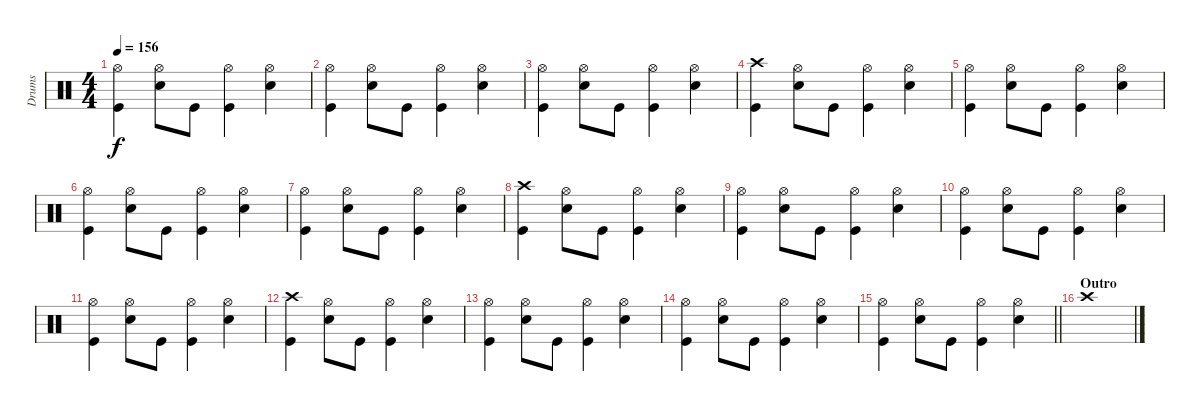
\track ("Drums" "Drums") {instrument percussion}
\staff {score}
\articulation defaults
\ts (4 4)
\tempo 156
\clef neutral
\ks c
("Hi-Hat (open)" "Kick (hit)").4{dy f} ("Hi-Hat (open)" "Snare (hit) 2").8 "Kick (hit)".8 ("Hi-Hat (open)" "Kick (hit)").4 ("Hi-Hat (open)" "Snare (hit) 2").4 |
("Hi-Hat (open)" "Kick (hit)").4 ("Hi-Hat (open)" "Snare (hit) 2").8 "Kick (hit)".8 ("Hi-Hat (open)" "Kick (hit)").4 ("Hi-Hat (open)" "Snare (hit) 2").4 |
("Hi-Hat (open)" "Kick (hit)").4 ("Hi-Hat (open)" "Snare (hit) 2").8 "Kick (hit)".8 ("Hi-Hat (open)" "Kick (hit)").4 ("Hi-Hat (open)" "Snare (hit) 2").4 |
("Crash high (hit)" "Kick (hit)").4 ("Hi-Hat (open)" "Snare (hit) 2").8 "Kick (hit)".8 ("Hi-Hat (open)" "Kick (hit)").4 ("Hi-Hat (open)" "Snare (hit) 2").4 |
("Hi-Hat (open)" "Kick (hit)").4 ("Hi-Hat (open)" "Snare (hit) 2").8 "Kick (hit)".8 ("Hi-Hat (open)" "Kick (hit)").4 ("Hi-Hat (open)" "Snare (hit) 2").4 |
("Hi-Hat (open)" "Kick (hit)").4 ("Hi-Hat (open)" "Snare (hit) 2").8 "Kick (hit)".8 ("Hi-Hat (open)" "Kick (hit)").4 ("Hi-Hat (open)" "Snare (hit) 2").4 |
("Hi-Hat (open)" "Kick (hit)").4 ("Hi-Hat (open)" "Snare (hit) 2").8 "Kick (hit)".8 ("Hi-Hat (open)" "Kick (hit)").4 ("Hi-Hat (open)" "Snare (hit) 2").4 |
("Crash high (hit)" "Kick (hit)").4 ("Hi-Hat (open)" "Snare (hit) 2").8 "Kick (hit)".8 ("Hi-Hat (open)" "Kick (hit)").4 ("Hi-Hat (open)" "Snare (hit) 2").4 |
("Hi-Hat (open)" "Kick (hit)").4 ("Hi-Hat (open)" "Snare (hit) 2").8 "Kick (hit)".8 ("Hi-Hat (open)" "Kick (hit)").4 ("Hi-Hat (open)" "Snare (hit) 2").4 |
("Hi-Hat (open)" "Kick (hit)").4 ("Hi-Hat (open)" "Snare (hit) 2").8 "Kick (hit)".8 ("Hi-Hat (open)" "Kick (hit)").4 ("Hi-Hat (open)" "Snare (hit) 2").4 |
("Hi-Hat (open)" "Kick (hit)").4 ("Hi-Hat (open)" "Snare (hit) 2").8 "Kick (hit)".8 ("Hi-Hat (open)" "Kick (hit)").4 ("Hi-Hat (open)" "Snare (hit) 2").4 |
("Crash high (hit)" "Kick (hit)").4 ("Hi-Hat (open)" "Snare (hit) 2").8 "Kick (hit)".8 ("Hi-Hat (open)" "Kick (hit)").4 ("Hi-Hat (open)" "Snare (hit) 2").4 |
("Hi-Hat (open)" "Kick (hit)").4 ("Hi-Hat (open)" "Snare (hit) 2").8 "Kick (hit)".8 ("Hi-Hat (open)" "Kick (hit)").4 ("Hi-Hat (open)" "Snare (hit) 2").4 |
("Hi-Hat (open)" "Kick (hit)").4 ("Hi-Hat (open)" "Snare (hit) 2").8 "Kick (hit)".8 ("Hi-Hat (open)" "Kick (hit)").4 ("Hi-Hat (open)" "Snare (hit) 2").4 |
\barLineRight lightlight
("Hi-Hat (open)" "Kick (hit)").4 ("Hi-Hat (open)" "Snare (hit) 2").8 "Kick (hit)".8 ("Hi-Hat (open)" "Kick (hit)").4 ("Hi-Hat (open)" "Snare (hit) 2").4 |
\section ("" "Outro")
"Crash high (hit)".1
